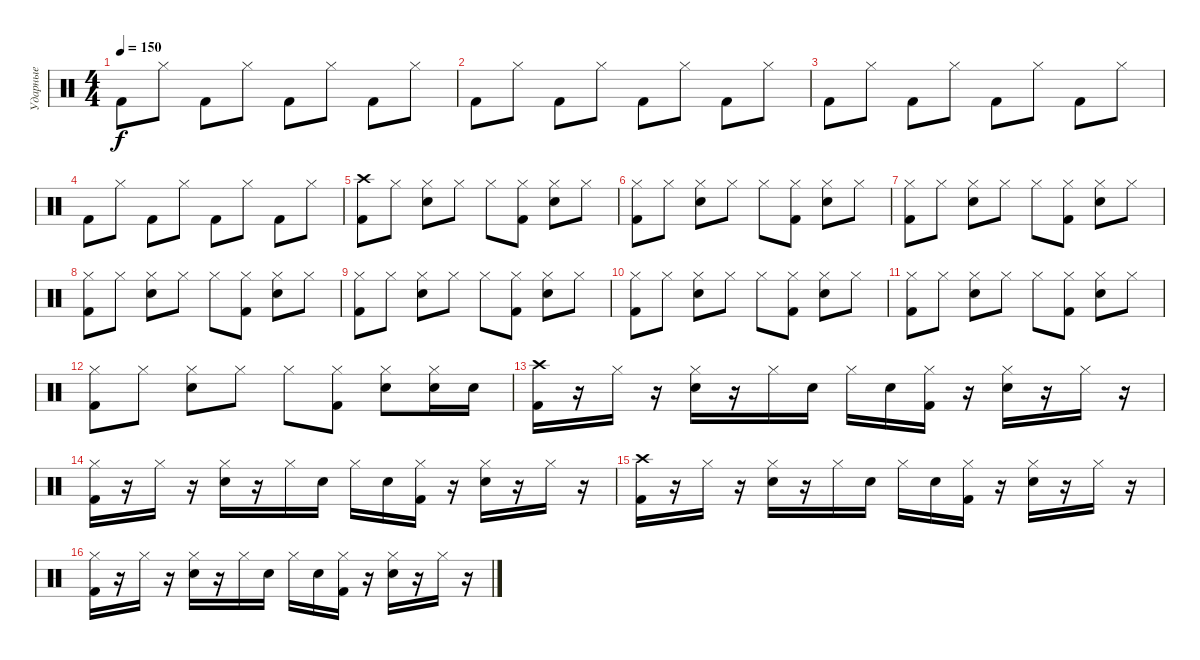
\track ("Ударные" "Ударные") {instrument percussion}
\staff {score}
\articulation defaults
\ts (4 4)
\tempo 150
\clef neutral
\ks c "Kick (hit) 2".8{dy f} "Hi-Hat (closed)".8 "Kick (hit) 2".8 "Hi-Hat (closed)".8 "Kick (hit) 2".8 "Hi-Hat (closed)".8 "Kick (hit) 2".8 "Hi-Hat (closed)".8
|
"Kick (hit) 2".8 "Hi-Hat (closed)".8 "Kick (hit) 2".8 "Hi-Hat (closed)".8 "Kick (hit) 2".8 "Hi-Hat (closed)".8 "Kick (hit) 2".8 "Hi-Hat (closed)".8 |
"Kick (hit) 2".8 "Hi-Hat (closed)".8 "Kick (hit) 2".8 "Hi-Hat (closed)".8 "Kick (hit) 2".8 "Hi-Hat (closed)".8 "Kick (hit) 2".8 "Hi-Hat (closed)".8 |
"Kick (hit) 2".8 "Hi-Hat (closed)".8 "Kick (hit) 2".8 "Hi-Hat (closed)".8 "Kick (hit) 2".8 "Hi-Hat (closed)".8 "Kick (hit) 2".8 "Hi-Hat (closed)".8 |
("Kick (hit) 2" "Crash high (hit)").8 "Hi-Hat (closed)".8 ("Electric Snare (hit)" "Hi-Hat (closed)").8 "Hi-Hat (closed)".8 "Hi-Hat (closed)".8 ("Kick (hit) 2" "Hi-Hat (closed)").8 ("Electric Snare (hit)" "Hi-Hat (closed)").8 "Hi-Hat (closed)".8 |
("Kick (hit) 2" "Hi-Hat (closed)").8 "Hi-Hat (closed)".8 ("Electric Snare (hit)" "Hi-Hat (closed)").8 "Hi-Hat (closed)".8 "Hi-Hat (closed)".8 ("Kick (hit) 2" "Hi-Hat (closed)").8 ("Electric Snare (hit)" "Hi-Hat (closed)").8 "Hi-Hat (closed)".8 |
("Kick (hit) 2" "Hi-Hat (closed)").8 "Hi-Hat (closed)".8 ("Electric Snare (hit)" "Hi-Hat (closed)").8 "Hi-Hat (closed)".8 "Hi-Hat (closed)".8 ("Kick (hit) 2" "Hi-Hat (closed)").8 ("Electric Snare (hit)" "Hi-Hat (closed)").8 "Hi-Hat (closed)".8 |
("Kick (hit) 2" "Hi-Hat (closed)").8 "Hi-Hat (closed)".8 ("Electric Snare (hit)" "Hi-Hat (closed)").8 "Hi-Hat (closed)".8 "Hi-Hat (closed)".8 ("Kick (hit) 2" "Hi-Hat (closed)").8 ("Electric Snare (hit)" "Hi-Hat (closed)").8 "Hi-Hat (closed)".8 |
("Kick (hit) 2" "Hi-Hat (closed)").8 "Hi-Hat (closed)".8 ("Electric Snare (hit)" "Hi-Hat (closed)").8 "Hi-Hat (closed)".8 "Hi-Hat (closed)".8 ("Kick (hit) 2" "Hi-Hat (closed)").8 ("Electric Snare (hit)" "Hi-Hat (closed)").8 "Hi-Hat (closed)".8 |
("Kick (hit) 2" "Hi-Hat (closed)").8 "Hi-Hat (closed)".8 ("Electric Snare (hit)" "Hi-Hat (closed)").8 "Hi-Hat (closed)".8 "Hi-Hat (closed)".8 ("Kick (hit) 2" "Hi-Hat (closed)").8 ("Electric Snare (hit)" "Hi-Hat (closed)").8 "Hi-Hat (closed)".8 |
("Kick (hit) 2" "Hi-Hat (closed)").8 "Hi-Hat (closed)".8 ("Electric Snare (hit)" "Hi-Hat (closed)").8 "Hi-Hat (closed)".8 "Hi-Hat (closed)".8 ("Kick (hit) 2" "Hi-Hat (closed)").8 ("Electric Snare (hit)" "Hi-Hat (closed)").8 "Hi-Hat (closed)".8 |
("Kick (hit) 2" "Hi-Hat (closed)").8 "Hi-Hat (closed)".8 ("Electric Snare (hit)" "Hi-Hat (closed)").8 "Hi-Hat (closed)".8 "Hi-Hat (closed)".8 ("Kick (hit) 2" "Hi-Hat (closed)").8 ("Electric Snare (hit)" "Hi-Hat (closed)").8 ("Electric Snare (hit)" "Hi-Hat (closed)").16 "Electric Snare (hit)".16 |
("Kick (hit) 2" "Crash high (hit)").16 r.16 "Hi-Hat (closed)".16 r.16 ("Electric Snare (hit)" "Hi-Hat (closed)").16 r.16 "Hi-Hat (closed)".16 "Electric Snare (hit)".16 "Hi-Hat (closed)".16 "Electric Snare (hit)".16 ("Kick (hit) 2" "Hi-Hat (closed)").16 r.16 ("Electric Snare (hit)" "Hi-Hat (closed)").16 r.16 "Hi-Hat (closed)".16 r.16 |
("Kick (hit) 2" "Hi-Hat (closed)").16 r.16 "Hi-Hat (closed)".16 r.16 ("Electric Snare (hit)" "Hi-Hat (closed)").16 r.16 "Hi-Hat (closed)".16 "Electric Snare (hit)".16 "Hi-Hat (closed)".16 "Electric Snare (hit)".16 ("Kick (hit) 2" "Hi-Hat (closed)").16 r.16 ("Electric Snare (hit)" "Hi-Hat (closed)").16 r.16 "Hi-Hat (closed)".16 r.16 |
("Kick (hit) 2" "Crash high (hit)").16 r.16 "Hi-Hat (closed)".16 r.16 ("Electric Snare (hit)" "Hi-Hat (closed)").16 r.16 "Hi-Hat (closed)".16 "Electric Snare (hit)".16 "Hi-Hat (closed)".16 "Electric Snare (hit)".16 ("Kick (hit) 2" "Hi-Hat (closed)").16 r.16 ("Electric Snare (hit)" "Hi-Hat (closed)").16 r.16 "Hi-Hat (closed)".16 r.16 |
("Kick (hit) 2" "Hi-Hat (closed)").16 r.16 "Hi-Hat (closed)".16 r.16 ("Electric Snare (hit)" "Hi-Hat (closed)").16 r.16 "Hi-Hat (closed)".16 "Electric Snare (hit)".16 "Hi-Hat (closed)".16 "Electric Snare (hit)".16 ("Kick (hit) 2" "Hi-Hat (closed)").16 r.16 ("Electric Snare (hit)" "Hi-Hat (closed)").16 r.16 "Hi-Hat (closed)".16 r.16
